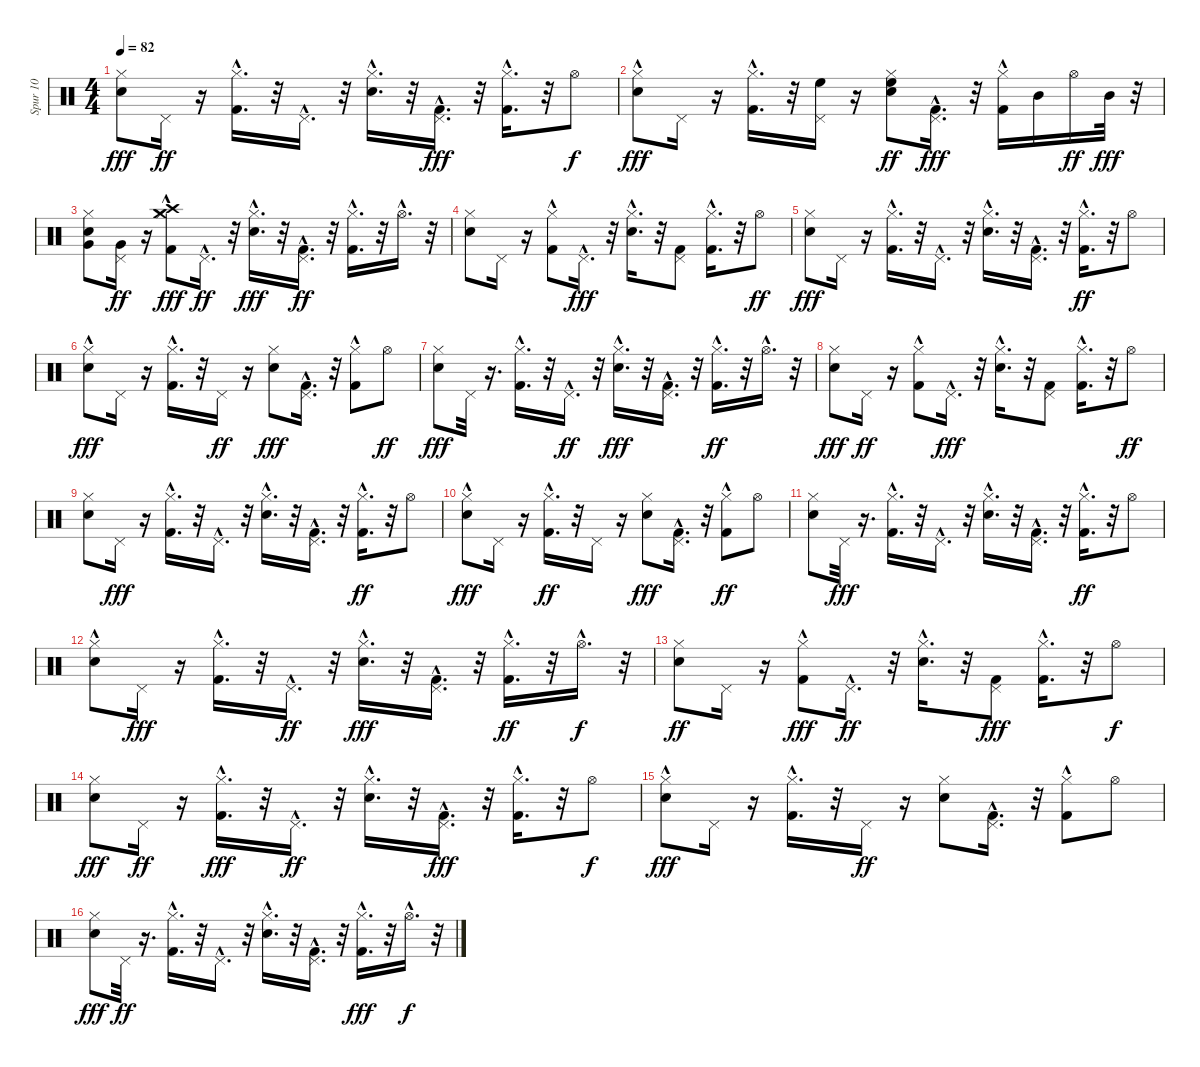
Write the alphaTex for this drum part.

\track ("Spur 10" "Spur 10") {instrument percussion}
\staff {score}
\articulation defaults
\ts (4 4)
\tempo 82
\clef neutral
\ks c
("Hi-Hat (closed)" "Electric Snare (hit)").8{dy fff} "Pedal Hi-Hat (hit)".16{dy ff} r.16 ("Kick (hit) 2"{hac} "Hi-Hat (closed)"{hac}).16{d} r.32 "Pedal Hi-Hat (hit)"{hac}.16{d} r.32 ("Electric Snare (hit)" "Hi-Hat (closed)"{hac}).16{d} r.32 ("Pedal Hi-Hat (hit)"{hac} "Kick (hit) 2").16{d dy fff} r.32 ("Hi-Hat (closed)"{hac} "Kick (hit) 2"{hac}).16{d} r.32 "Hi-Hat (open)".8{dy f} |
("Electric Snare (hit)"{hac} "Hi-Hat (closed)").8{dy fff} "Pedal Hi-Hat (hit)".16 r.16 ("Hi-Hat (closed)"{hac} "Kick (hit) 2"{hac}).16{d} r.32 ("Pedal Hi-Hat (hit)" "High Floor Tom (hit)").16 r.16 ("High Floor Tom (hit)" "Electric Snare (hit)" "Hi-Hat (closed)").8{dy ff} ("Pedal Hi-Hat (hit)"{hac} "Kick (hit) 2").16{d dy fff} r.32 ("Hi-Hat (closed)" "Kick (hit) 2"{hac}).16 "Mid Tom (hit)".16 "Hi-Hat (open)".16{dy ff} "Mid Tom (hit)".32{dy fff} r.32 |
("Very Low Tom (hit)" "Electric Snare (hit)" "Hi-Hat (closed)").8 ("Very Low Tom (hit)" "Pedal Hi-Hat (hit)").16{dy ff} r.16 ("Kick (hit) 2"{hac} "Crash high (hit)" "Crash medium (hit)" "Hi-Hat (closed)"{hac}).8{dy fff} "Pedal Hi-Hat (hit)"{hac}.16{d dy ff} r.32 ("Electric Snare (hit)" "Hi-Hat (closed)"{hac}).16{d dy fff} r.32 ("Kick (hit) 2" "Pedal Hi-Hat (hit)"{hac}).16{d dy ff} r.32 ("Kick (hit) 2"{hac} "Hi-Hat (closed)"{hac}).16{d} r.32 "Hi-Hat (open)"{hac}.16{d} r.32 |
("Electric Snare (hit)" "Hi-Hat (closed)").8 "Pedal Hi-Hat (hit)".16 r.16 ("Kick (hit) 2"{hac} "Hi-Hat (closed)").8 "Pedal Hi-Hat (hit)"{hac}.16{d dy fff} r.32 ("Electric Snare (hit)" "Hi-Hat (closed)"{hac}).16{d} r.32 ("Pedal Hi-Hat (hit)" "Kick (hit) 2").8 ("Hi-Hat (closed)"{hac} "Kick (hit) 2"{hac}).16{d} r.32 "Hi-Hat (open)".8{dy ff} |
("Hi-Hat (closed)" "Electric Snare (hit)").8{dy fff} "Pedal Hi-Hat (hit)".16 r.16 ("Hi-Hat (closed)"{hac} "Kick (hit) 2"{hac}).16{d} r.32 "Pedal Hi-Hat (hit)"{hac}.16{d} r.32 ("Hi-Hat (closed)"{hac} "Electric Snare (hit)").16{d} r.32 ("Kick (hit) 2" "Pedal Hi-Hat (hit)"{hac}).16{d} r.32 ("Kick (hit) 2"{hac} "Hi-Hat (closed)"{hac}).16{d dy ff} r.32 "Hi-Hat (open)".8 |
("Hi-Hat (closed)" "Electric Snare (hit)"{hac}).8{dy fff} "Pedal Hi-Hat (hit)".16 r.16 ("Hi-Hat (closed)"{hac} "Kick (hit) 2"{hac}).16{d} r.32 "Pedal Hi-Hat (hit)".16{dy ff} r.16 ("Hi-Hat (closed)" "Electric Snare (hit)").8{dy fff} ("Kick (hit) 2" "Pedal Hi-Hat (hit)"{hac}).16{d} r.32 ("Hi-Hat (closed)" "Kick (hit) 2"{hac}).8 "Hi-Hat (open)".8{dy ff} |
("Hi-Hat (closed)" "Electric Snare (hit)").8{dy fff} "Pedal Hi-Hat (hit)".32 r.16{d} ("Kick (hit) 2"{hac} "Hi-Hat (closed)"{hac}).16{d} r.32 "Pedal Hi-Hat (hit)"{hac}.16{d dy ff} r.32 ("Hi-Hat (closed)"{hac} "Electric Snare (hit)").16{d dy fff} r.32 ("Pedal Hi-Hat (hit)"{hac} "Kick (hit) 2").16{d} r.32 ("Kick (hit) 2"{hac} "Hi-Hat (closed)"{hac}).16{d dy ff} r.32 "Hi-Hat (open)"{hac}.16{d} r.32 |
("Hi-Hat (closed)" "Electric Snare (hit)").8{dy fff} "Pedal Hi-Hat (hit)".16{dy ff} r.16 ("Kick (hit) 2"{hac} "Hi-Hat (closed)").8 "Pedal Hi-Hat (hit)"{hac}.16{d dy fff} r.32 ("Electric Snare (hit)" "Hi-Hat (closed)"{hac}).16{d} r.32 ("Pedal Hi-Hat (hit)" "Kick (hit) 2").8 ("Hi-Hat (closed)"{hac} "Kick (hit) 2"{hac}).16{d} r.32 "Hi-Hat (open)".8{dy ff} |
("Electric Snare (hit)" "Hi-Hat (closed)").8 "Pedal Hi-Hat (hit)".16{dy fff} r.16 ("Hi-Hat (closed)"{hac} "Kick (hit) 2"{hac}).16{d} r.32 "Pedal Hi-Hat (hit)"{hac}.16{d} r.32 ("Electric Snare (hit)" "Hi-Hat (closed)"{hac}).16{d} r.32 ("Kick (hit) 2" "Pedal Hi-Hat (hit)"{hac}).16{d} r.32 ("Kick (hit) 2"{hac} "Hi-Hat (closed)"{hac}).16{d dy ff} r.32 "Hi-Hat (open)".8 |
("Hi-Hat (closed)" "Electric Snare (hit)"{hac}).8{dy fff} "Pedal Hi-Hat (hit)".16 r.16 ("Kick (hit) 2"{hac} "Hi-Hat (closed)"{hac}).16{d dy ff} r.32 "Pedal Hi-Hat (hit)".16 r.16 ("Hi-Hat (closed)" "Electric Snare (hit)").8{dy fff} ("Kick (hit) 2" "Pedal Hi-Hat (hit)"{hac}).16{d} r.32 ("Kick (hit) 2"{hac} "Hi-Hat (closed)").8{dy ff} "Hi-Hat (open)".8 |
("Electric Snare (hit)" "Hi-Hat (closed)").8 "Pedal Hi-Hat (hit)".32{dy fff} r.16{d} ("Hi-Hat (closed)"{hac} "Kick (hit) 2"{hac}).16{d} r.32 "Pedal Hi-Hat (hit)"{hac}.16{d} r.32 ("Electric Snare (hit)" "Hi-Hat (closed)"{hac}).16{d} r.32 ("Kick (hit) 2" "Pedal Hi-Hat (hit)"{hac}).16{d} r.32 ("Kick (hit) 2"{hac} "Hi-Hat (closed)"{hac}).16{d dy ff} r.32 "Hi-Hat (open)".8 |
("Electric Snare (hit)"{hac} "Hi-Hat (closed)").8 "Pedal Hi-Hat (hit)".16{dy fff} r.16 ("Hi-Hat (closed)"{hac} "Kick (hit) 2"{hac}).16{d} r.32 "Pedal Hi-Hat (hit)"{hac}.16{d dy ff} r.32 ("Hi-Hat (closed)"{hac} "Electric Snare (hit)").16{d dy fff} r.32 ("Pedal Hi-Hat (hit)"{hac} "Kick (hit) 2").16{d} r.32 ("Kick (hit) 2"{hac} "Hi-Hat (closed)"{hac}).16{d dy ff} r.32 "Hi-Hat (open)"{hac}.16{d dy f} r.32 |
("Electric Snare (hit)" "Hi-Hat (closed)").8{dy ff} "Pedal Hi-Hat (hit)".16 r.16 ("Hi-Hat (closed)" "Kick (hit) 2"{hac}).8{dy fff} "Pedal Hi-Hat (hit)"{hac}.16{d dy ff} r.32 ("Electric Snare (hit)" "Hi-Hat (closed)"{hac}).16{d} r.32 ("Pedal Hi-Hat (hit)" "Kick (hit) 2").8{dy fff} ("Hi-Hat (closed)"{hac} "Kick (hit) 2"{hac}).16{d} r.32 "Hi-Hat (open)".8{dy f} |
("Hi-Hat (closed)" "Electric Snare (hit)").8{dy fff} "Pedal Hi-Hat (hit)".16{dy ff} r.16 ("Hi-Hat (closed)"{hac} "Kick (hit) 2"{hac}).16{d dy fff} r.32 "Pedal Hi-Hat (hit)"{hac}.16{d dy ff} r.32 ("Electric Snare (hit)" "Hi-Hat (closed)"{hac}).16{d} r.32 ("Kick (hit) 2" "Pedal Hi-Hat (hit)"{hac}).16{d dy fff} r.32 ("Kick (hit) 2"{hac} "Hi-Hat (closed)"{hac}).16{d} r.32 "Hi-Hat (open)".8{dy f} |
("Electric Snare (hit)"{hac} "Hi-Hat (closed)").8{dy fff} "Pedal Hi-Hat (hit)".16 r.16 ("Kick (hit) 2"{hac} "Hi-Hat (closed)"{hac}).16{d} r.32 "Pedal Hi-Hat (hit)".16{dy ff} r.16 ("Electric Snare (hit)" "Hi-Hat (closed)").8 ("Kick (hit) 2" "Pedal Hi-Hat (hit)"{hac}).16{d} r.32 ("Kick (hit) 2"{hac} "Hi-Hat (closed)").8 "Hi-Hat (open)".8 |
("Electric Snare (hit)" "Hi-Hat (closed)").8{dy fff} "Pedal Hi-Hat (hit)".32{dy ff} r.16{d} ("Kick (hit) 2"{hac} "Hi-Hat (closed)"{hac}).16{d} r.32 "Pedal Hi-Hat (hit)"{hac}.16{d} r.32 ("Electric Snare (hit)" "Hi-Hat (closed)"{hac}).16{d} r.32 ("Kick (hit) 2" "Pedal Hi-Hat (hit)"{hac}).16{d} r.32 ("Hi-Hat (closed)"{hac} "Kick (hit) 2"{hac}).16{d dy fff} r.32 "Hi-Hat (open)"{hac}.16{d dy f} r.32
